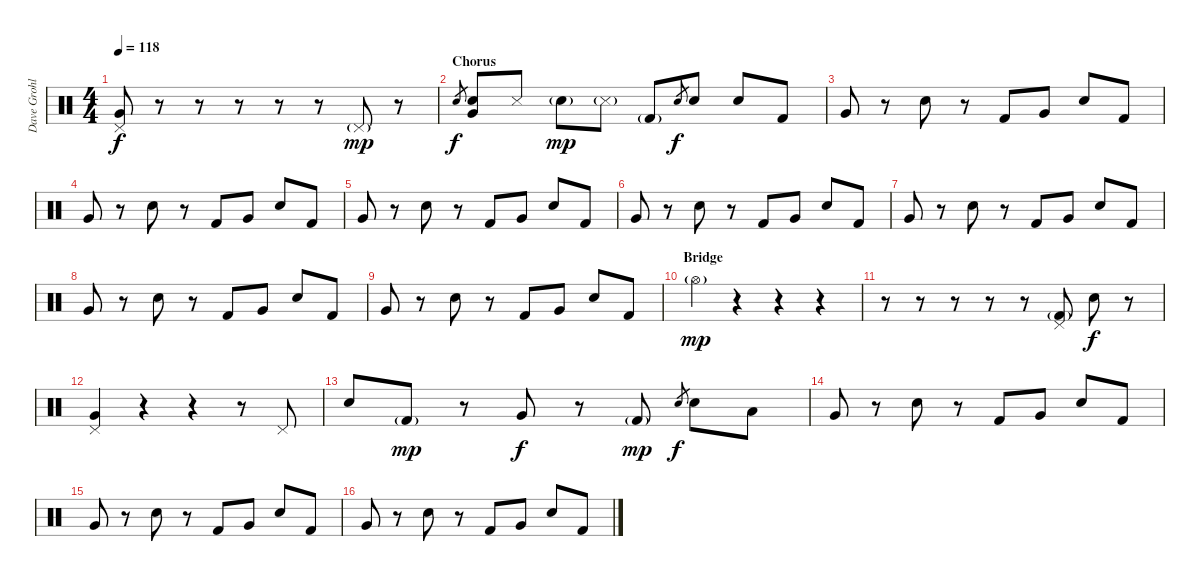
\track ("Dave Grohl - Drums" "Dave Grohl") {instrument percussion}
\staff {score}
\articulation defaults
\ts (4 4)
\tempo 118
\clef neutral
\ks c
("Pedal Hi-Hat (hit)" "Very Low Tom (hit)").8{dy f} r.8 r.8 r.8 r.8 r.8 "Pedal Hi-Hat (hit)"{g}.8{dy mp} r.8 |
\section ("" "Chorus")
"Electric Snare (hit)".8{gr dy f} ("Electric Snare (hit)" "Very Low Tom (hit)").8 "Snare (side stick) 3".8 "Electric Snare (hit)"{g}.8{dy mp} "Snare (side stick) 3"{g}.8 "Kick (hit) 2"{g}.8 "Electric Snare (hit)".8{gr dy f} "Electric Snare (hit)".8 "Electric Snare (hit)".8 "Kick (hit) 2".8 |
"Very Low Tom (hit)".8 r.8 "Electric Snare (hit)".8 r.8 "Kick (hit) 2".8 "Very Low Tom (hit)".8 "Electric Snare (hit)".8 "Kick (hit) 2".8 |
"Very Low Tom (hit)".8 r.8 "Electric Snare (hit)".8 r.8 "Kick (hit) 2".8 "Very Low Tom (hit)".8 "Electric Snare (hit)".8 "Kick (hit) 2".8 |
"Very Low Tom (hit)".8 r.8 "Electric Snare (hit)".8 r.8 "Kick (hit) 2".8 "Very Low Tom (hit)".8 "Electric Snare (hit)".8 "Kick (hit) 2".8 |
"Very Low Tom (hit)".8 r.8 "Electric Snare (hit)".8 r.8 "Kick (hit) 2".8 "Very Low Tom (hit)".8 "Electric Snare (hit)".8 "Kick (hit) 2".8 |
"Very Low Tom (hit)".8 r.8 "Electric Snare (hit)".8 r.8 "Kick (hit) 2".8 "Very Low Tom (hit)".8 "Electric Snare (hit)".8 "Kick (hit) 2".8 |
"Very Low Tom (hit)".8 r.8 "Electric Snare (hit)".8 r.8 "Kick (hit) 2".8 "Very Low Tom (hit)".8 "Electric Snare (hit)".8 "Kick (hit) 2".8 |
"Very Low Tom (hit)".8 r.8 "Electric Snare (hit)".8 r.8 "Kick (hit) 2".8 "Very Low Tom (hit)".8 "Electric Snare (hit)".8 "Kick (hit) 2".8 |
\section ("" "Bridge")
"Hi-Hat (open)"{g}.4{dy mp} r.4 r.4 r.4 |
r.8 r.8 r.8 r.8 r.8 ("Pedal Hi-Hat (hit)" "Kick (hit) 2"{g}).8 "Electric Snare (hit)".8{dy f} r.8 |
("Pedal Hi-Hat (hit)" "Very Low Tom (hit)").4 r.4 r.4 r.8 "Pedal Hi-Hat (hit)".8 |
"Electric Snare (hit)".8 "Kick (hit) 2"{g}.8{dy mp} r.8 "Very Low Tom (hit)".8{dy f} r.8 "Kick (hit) 2"{g}.8{dy mp} "Electric Snare (hit)".8{gr dy f} "Electric Snare (hit)".8 "Low Floor Tom (hit)".8 |
"Very Low Tom (hit)".8 r.8 "Electric Snare (hit)".8 r.8 "Kick (hit) 2".8 "Very Low Tom (hit)".8 "Electric Snare (hit)".8 "Kick (hit) 2".8 |
"Very Low Tom (hit)".8 r.8 "Electric Snare (hit)".8 r.8 "Kick (hit) 2".8 "Very Low Tom (hit)".8 "Electric Snare (hit)".8 "Kick (hit) 2".8 |
"Very Low Tom (hit)".8 r.8 "Electric Snare (hit)".8 r.8 "Kick (hit) 2".8 "Very Low Tom (hit)".8 "Electric Snare (hit)".8 "Kick (hit) 2".8
